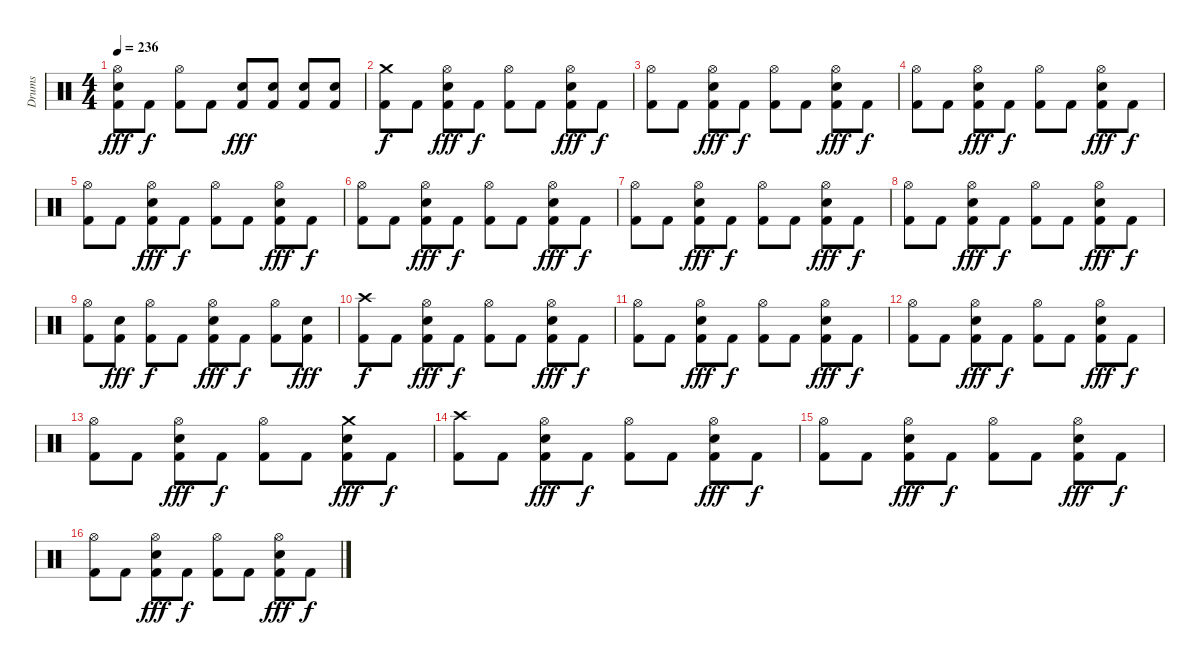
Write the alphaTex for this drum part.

\track ("Drums" "Drums") {instrument percussion}
\staff {score}
\articulation defaults
\ts (4 4)
\tempo 236
\clef neutral
\ks c
("Hi-Hat (open)" "Kick (hit) 2" "Electric Snare (hit)").8{dy fff} "Kick (hit) 2".8{dy f} ("Hi-Hat (open)" "Kick (hit) 2").8 "Kick (hit) 2".8 ("Kick (hit) 2" "Electric Snare (hit)").8{dy fff} ("Kick (hit) 2" "Electric Snare (hit)").8 ("Kick (hit) 2" "Electric Snare (hit)").8 ("Kick (hit) 2" "Electric Snare (hit)").8 |
("Crash medium (hit)" "Kick (hit) 2").8{dy f} "Kick (hit) 2".8 ("Hi-Hat (open)" "Kick (hit) 2" "Electric Snare (hit)").8{dy fff} "Kick (hit) 2".8{dy f} ("Hi-Hat (open)" "Kick (hit) 2").8 "Kick (hit) 2".8 ("Hi-Hat (open)" "Kick (hit) 2" "Electric Snare (hit)").8{dy fff} "Kick (hit) 2".8{dy f} |
("Hi-Hat (open)" "Kick (hit) 2").8 "Kick (hit) 2".8 ("Hi-Hat (open)" "Kick (hit) 2" "Electric Snare (hit)").8{dy fff} "Kick (hit) 2".8{dy f} ("Hi-Hat (open)" "Kick (hit) 2").8 "Kick (hit) 2".8 ("Hi-Hat (open)" "Kick (hit) 2" "Electric Snare (hit)").8{dy fff} "Kick (hit) 2".8{dy f} |
("Hi-Hat (open)" "Kick (hit) 2").8 "Kick (hit) 2".8 ("Hi-Hat (open)" "Kick (hit) 2" "Electric Snare (hit)").8{dy fff} "Kick (hit) 2".8{dy f} ("Hi-Hat (open)" "Kick (hit) 2").8 "Kick (hit) 2".8 ("Hi-Hat (open)" "Kick (hit) 2" "Electric Snare (hit)").8{dy fff} "Kick (hit) 2".8{dy f} |
("Hi-Hat (open)" "Kick (hit) 2").8 "Kick (hit) 2".8 ("Hi-Hat (open)" "Kick (hit) 2" "Electric Snare (hit)").8{dy fff} "Kick (hit) 2".8{dy f} ("Hi-Hat (open)" "Kick (hit) 2").8 "Kick (hit) 2".8 ("Hi-Hat (open)" "Kick (hit) 2" "Electric Snare (hit)").8{dy fff} "Kick (hit) 2".8{dy f} |
("Hi-Hat (open)" "Kick (hit) 2").8 "Kick (hit) 2".8 ("Hi-Hat (open)" "Kick (hit) 2" "Electric Snare (hit)").8{dy fff} "Kick (hit) 2".8{dy f} ("Hi-Hat (open)" "Kick (hit) 2").8 "Kick (hit) 2".8 ("Hi-Hat (open)" "Kick (hit) 2" "Electric Snare (hit)").8{dy fff} "Kick (hit) 2".8{dy f} |
("Hi-Hat (open)" "Kick (hit) 2").8 "Kick (hit) 2".8 ("Hi-Hat (open)" "Kick (hit) 2" "Electric Snare (hit)").8{dy fff} "Kick (hit) 2".8{dy f} ("Hi-Hat (open)" "Kick (hit) 2").8 "Kick (hit) 2".8 ("Hi-Hat (open)" "Kick (hit) 2" "Electric Snare (hit)").8{dy fff} "Kick (hit) 2".8{dy f} |
("Hi-Hat (open)" "Kick (hit) 2").8 "Kick (hit) 2".8 ("Hi-Hat (open)" "Kick (hit) 2" "Electric Snare (hit)").8{dy fff} "Kick (hit) 2".8{dy f} ("Hi-Hat (open)" "Kick (hit) 2").8 "Kick (hit) 2".8 ("Hi-Hat (open)" "Kick (hit) 2" "Electric Snare (hit)").8{dy fff} "Kick (hit) 2".8{dy f} |
("Hi-Hat (open)" "Kick (hit) 2").8 ("Kick (hit) 2" "Electric Snare (hit)").8{dy fff} ("Hi-Hat (open)" "Kick (hit) 2").8{dy f} "Kick (hit) 2".8 ("Hi-Hat (open)" "Kick (hit) 2" "Electric Snare (hit)").8{dy fff} "Kick (hit) 2".8{dy f} ("Hi-Hat (open)" "Kick (hit) 2").8 ("Kick (hit) 2" "Electric Snare (hit)").8{dy fff} |
("Crash high (hit)" "Kick (hit) 2").8{dy f} "Kick (hit) 2".8 ("Hi-Hat (open)" "Kick (hit) 2" "Electric Snare (hit)").8{dy fff} "Kick (hit) 2".8{dy f} ("Hi-Hat (open)" "Kick (hit) 2").8 "Kick (hit) 2".8 ("Hi-Hat (open)" "Kick (hit) 2" "Electric Snare (hit)").8{dy fff} "Kick (hit) 2".8{dy f} |
("Kick (hit) 2" "Hi-Hat (open)").8 "Kick (hit) 2".8 ("Kick (hit) 2" "Hi-Hat (open)" "Electric Snare (hit)").8{dy fff} "Kick (hit) 2".8{dy f} ("Kick (hit) 2" "Hi-Hat (open)").8 "Kick (hit) 2".8 ("Kick (hit) 2" "Hi-Hat (open)" "Electric Snare (hit)").8{dy fff} "Kick (hit) 2".8{dy f} |
("Hi-Hat (open)" "Kick (hit) 2").8 "Kick (hit) 2".8 ("Hi-Hat (open)" "Kick (hit) 2" "Electric Snare (hit)").8{dy fff} "Kick (hit) 2".8{dy f} ("Hi-Hat (open)" "Kick (hit) 2").8 "Kick (hit) 2".8 ("Hi-Hat (open)" "Kick (hit) 2" "Electric Snare (hit)").8{dy fff} "Kick (hit) 2".8{dy f} |
("Hi-Hat (open)" "Kick (hit) 2").8 "Kick (hit) 2".8 ("Hi-Hat (open)" "Kick (hit) 2" "Electric Snare (hit)").8{dy fff} "Kick (hit) 2".8{dy f} ("Hi-Hat (open)" "Kick (hit) 2").8 "Kick (hit) 2".8 ("Crash medium (hit)" "Kick (hit) 2" "Electric Snare (hit)").8{dy fff} "Kick (hit) 2".8{dy f} |
("Crash high (hit)" "Kick (hit) 2").8 "Kick (hit) 2".8 ("Hi-Hat (open)" "Kick (hit) 2" "Electric Snare (hit)").8{dy fff} "Kick (hit) 2".8{dy f} ("Hi-Hat (open)" "Kick (hit) 2").8 "Kick (hit) 2".8 ("Hi-Hat (open)" "Kick (hit) 2" "Electric Snare (hit)").8{dy fff} "Kick (hit) 2".8{dy f} |
("Kick (hit) 2" "Hi-Hat (open)").8 "Kick (hit) 2".8 ("Kick (hit) 2" "Hi-Hat (open)" "Electric Snare (hit)").8{dy fff} "Kick (hit) 2".8{dy f} ("Kick (hit) 2" "Hi-Hat (open)").8 "Kick (hit) 2".8 ("Kick (hit) 2" "Hi-Hat (open)" "Electric Snare (hit)").8{dy fff} "Kick (hit) 2".8{dy f} |
("Hi-Hat (open)" "Kick (hit) 2").8 "Kick (hit) 2".8 ("Hi-Hat (open)" "Kick (hit) 2" "Electric Snare (hit)").8{dy fff} "Kick (hit) 2".8{dy f} ("Hi-Hat (open)" "Kick (hit) 2").8 "Kick (hit) 2".8 ("Hi-Hat (open)" "Kick (hit) 2" "Electric Snare (hit)").8{dy fff} "Kick (hit) 2".8{dy f}
